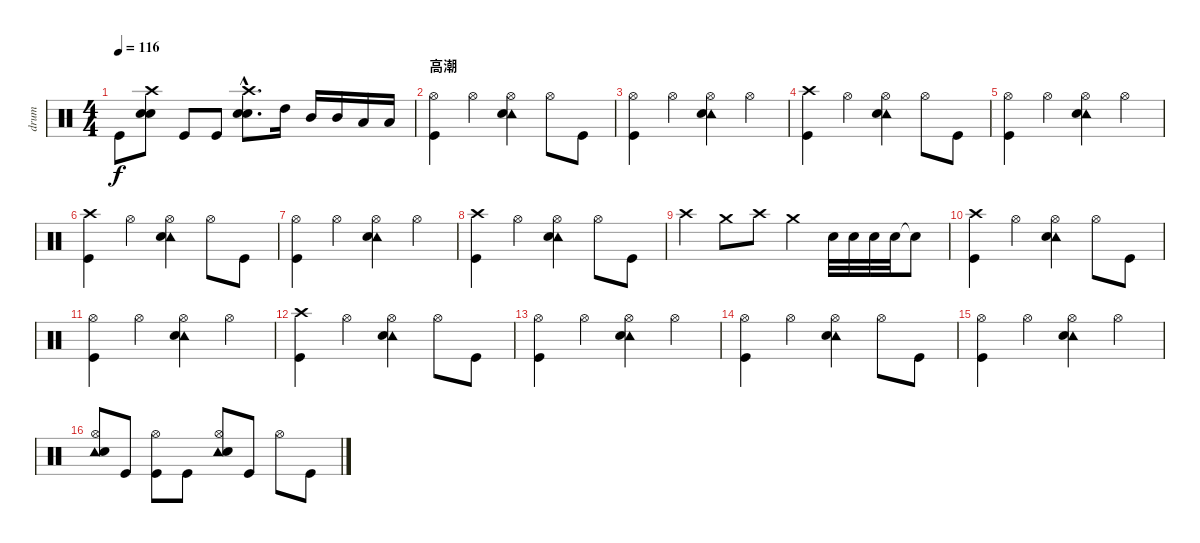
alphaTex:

\track ("drum" "drum") {instrument percussion}
\staff {score}
\articulation defaults
\ts (4 4)
\tempo 116
\clef neutral
\ks c "Kick (hit)".8{dy f}
("Crash high (hit)" "Snare (hit) 2" "Snare (hit) 2").8 "Kick (hit)".8 "Kick (hit)".8 ("Crash high (hit)"{hac} "Snare (hit) 2"{hac} "Snare (hit) 2"{hac}).8{d} "High Tom (hit)".16 "Mid Tom (hit)".16 "Mid Tom (hit)".16 "Low Tom (hit)".16 "Low Tom (hit)".16 |
\section ("" "高潮")
("Hi-Hat (open)" "Kick (hit)").4 "Hi-Hat (open)".4 ("Hi-Hat (open)" "Tambourine (hit)" "Snare (hit) 2").4 "Hi-Hat (open)".8 "Kick (hit)".8 |
("Hi-Hat (open)" "Kick (hit)").4 "Hi-Hat (open)".4 ("Hi-Hat (open)" "Tambourine (hit)" "Snare (hit) 2").4 "Hi-Hat (open)".4 |
("Crash high (hit)" "Kick (hit)").4 "Hi-Hat (open)".4 ("Hi-Hat (open)" "Tambourine (hit)" "Snare (hit) 2").4 "Hi-Hat (open)".8 "Kick (hit)".8 |
("Hi-Hat (open)" "Kick (hit)").4 "Hi-Hat (open)".4 ("Hi-Hat (open)" "Tambourine (hit)" "Snare (hit) 2").4 "Hi-Hat (open)".4 |
("Crash high (hit)" "Kick (hit)").4 "Hi-Hat (open)".4 ("Hi-Hat (open)" "Tambourine (hit)" "Snare (hit) 2").4 "Hi-Hat (open)".8 "Kick (hit)".8 |
("Hi-Hat (open)" "Kick (hit)").4 "Hi-Hat (open)".4 ("Hi-Hat (open)" "Tambourine (hit)" "Snare (hit) 2").4 "Hi-Hat (open)".4 |
("Crash high (hit)" "Kick (hit)").4 "Hi-Hat (open)".4 ("Hi-Hat (open)" "Tambourine (hit)" "Snare (hit) 2").4 "Hi-Hat (open)".8 "Kick (hit)".8 |
"Crash high (hit)".4 "Crash medium (hit)".8 "Crash high (hit)".8 "Crash medium (hit)".4 "Snare (hit) 2".32 "Snare (hit) 2".32 "Snare (hit) 2".32 "Snare (hit) 2".32 "Snare (hit)"{t}.8 |
("Crash high (hit)" "Kick (hit)").4 "Hi-Hat (open)".4 ("Hi-Hat (open)" "Tambourine (hit)" "Snare (hit) 2").4 "Hi-Hat (open)".8 "Kick (hit)".8 |
("Hi-Hat (open)" "Kick (hit)").4 "Hi-Hat (open)".4 ("Hi-Hat (open)" "Tambourine (hit)" "Snare (hit) 2").4 "Hi-Hat (open)".4 |
("Crash high (hit)" "Kick (hit)").4 "Hi-Hat (open)".4 ("Hi-Hat (open)" "Tambourine (hit)" "Snare (hit) 2").4 "Hi-Hat (open)".8 "Kick (hit)".8 |
("Hi-Hat (open)" "Kick (hit)").4 "Hi-Hat (open)".4 ("Hi-Hat (open)" "Tambourine (hit)" "Snare (hit) 2").4 "Hi-Hat (open)".4 |
("Hi-Hat (open)" "Kick (hit)").4 "Hi-Hat (open)".4 ("Hi-Hat (open)" "Tambourine (hit)" "Snare (hit) 2").4 "Hi-Hat (open)".8 "Kick (hit)".8 |
("Hi-Hat (open)" "Kick (hit)").4 "Hi-Hat (open)".4 ("Hi-Hat (open)" "Tambourine (hit)" "Snare (hit) 2").4 "Hi-Hat (open)".4 |
("Hi-Hat (open)" "Tambourine (hit)" "Snare (hit) 2").8 "Kick (hit)".8 ("Hi-Hat (open)" "Kick (hit)").8 "Kick (hit)".8 ("Hi-Hat (open)" "Tambourine (hit)" "Snare (hit) 2").8 "Kick (hit)".8 "Hi-Hat (open)".8 "Kick (hit)".8
